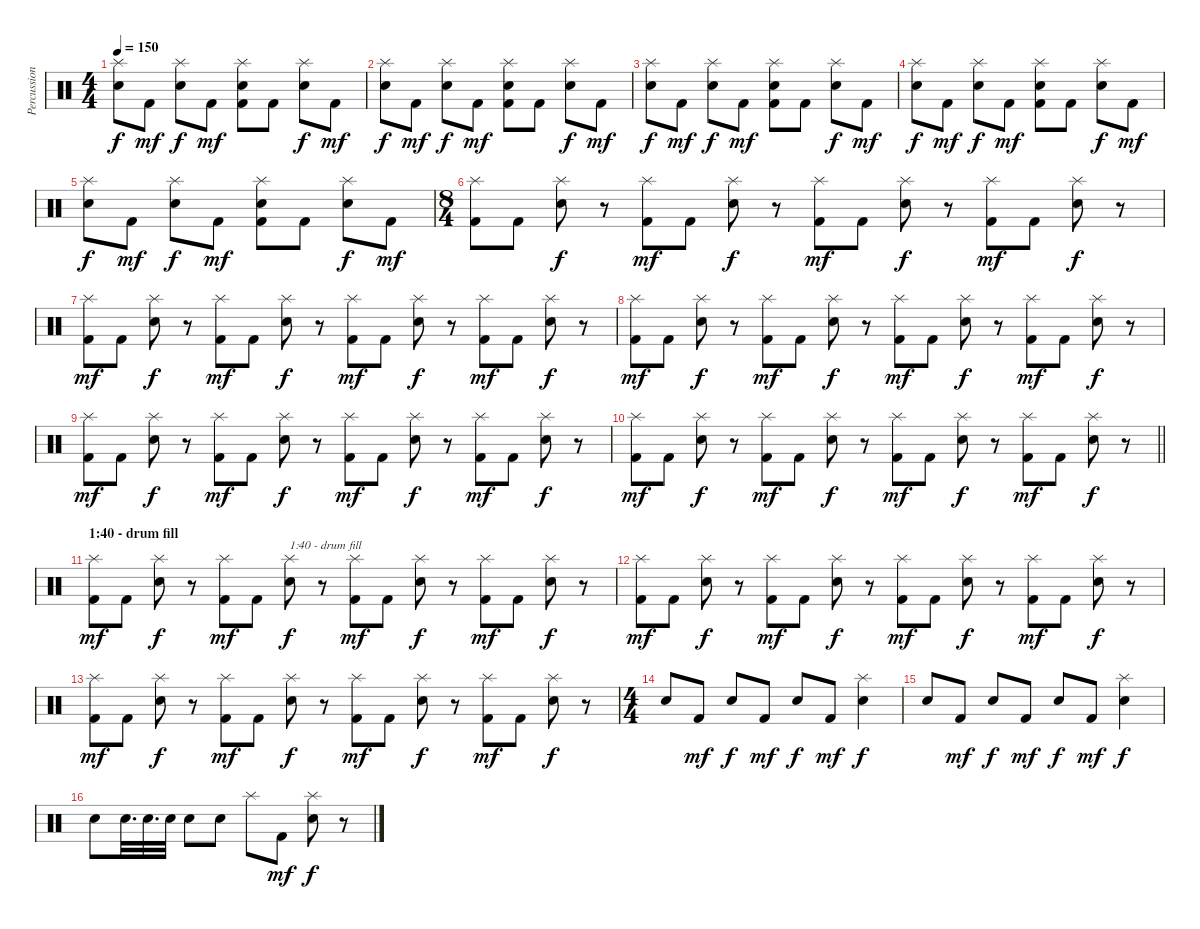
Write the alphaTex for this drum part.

\track ("Percussion" "Percussion") {instrument percussion}
\staff {score}
\articulation defaults
\ts (4 4)
\tempo 150
\clef neutral
\ks c
("Splash (hit)" "Snare (hit) 2").8{dy f} "Kick (hit) 2".8{dy mf} ("Splash (hit)" "Snare (hit) 2").8{dy f} "Kick (hit) 2".8{dy mf} ("Splash (hit)" "Snare (hit) 2" "Kick (hit) 2").8 "Kick (hit) 2".8 ("Splash (hit)" "Snare (hit) 2").8{dy f} "Kick (hit) 2".8{dy mf} |
("Splash (hit)" "Snare (hit) 2").8{dy f} "Kick (hit) 2".8{dy mf} ("Splash (hit)" "Snare (hit) 2").8{dy f} "Kick (hit) 2".8{dy mf} ("Splash (hit)" "Snare (hit) 2" "Kick (hit) 2").8 "Kick (hit) 2".8 ("Splash (hit)" "Snare (hit) 2").8{dy f} "Kick (hit) 2".8{dy mf} |
("Splash (hit)" "Snare (hit) 2").8{dy f} "Kick (hit) 2".8{dy mf} ("Splash (hit)" "Snare (hit) 2").8{dy f} "Kick (hit) 2".8{dy mf} ("Splash (hit)" "Snare (hit) 2" "Kick (hit) 2").8 "Kick (hit) 2".8 ("Splash (hit)" "Snare (hit) 2").8{dy f} "Kick (hit) 2".8{dy mf} |
("Splash (hit)" "Snare (hit) 2").8{dy f} "Kick (hit) 2".8{dy mf} ("Splash (hit)" "Snare (hit) 2").8{dy f} "Kick (hit) 2".8{dy mf} ("Splash (hit)" "Snare (hit) 2" "Kick (hit) 2").8 "Kick (hit) 2".8 ("Splash (hit)" "Snare (hit) 2").8{dy f} "Kick (hit) 2".8{dy mf} |
("Splash (hit)" "Snare (hit) 2").8{dy f} "Kick (hit) 2".8{dy mf} ("Splash (hit)" "Snare (hit) 2").8{dy f} "Kick (hit) 2".8{dy mf} ("Splash (hit)" "Snare (hit) 2" "Kick (hit) 2").8 "Kick (hit) 2".8 ("Splash (hit)" "Snare (hit) 2").8{dy f} "Kick (hit) 2".8{dy mf} |
\ts (8 4)
("Splash (hit)" "Kick (hit) 2").8 "Kick (hit) 2".8 ("Splash (hit)" "Snare (hit) 2").8{dy f} r.8 ("Splash (hit)" "Kick (hit) 2").8{dy mf} "Kick (hit) 2".8 ("Splash (hit)" "Snare (hit) 2").8{dy f} r.8 ("Splash (hit)" "Kick (hit) 2").8{dy mf} "Kick (hit) 2".8 ("Splash (hit)" "Snare (hit) 2").8{dy f} r.8 ("Splash (hit)" "Kick (hit) 2").8{dy mf} "Kick (hit) 2".8 ("Splash (hit)" "Snare (hit) 2").8{dy f} r.8 |
("Splash (hit)" "Kick (hit) 2").8{dy mf} "Kick (hit) 2".8 ("Splash (hit)" "Snare (hit) 2").8{dy f} r.8 ("Splash (hit)" "Kick (hit) 2").8{dy mf} "Kick (hit) 2".8 ("Splash (hit)" "Snare (hit) 2").8{dy f} r.8 ("Splash (hit)" "Kick (hit) 2").8{dy mf} "Kick (hit) 2".8 ("Splash (hit)" "Snare (hit) 2").8{dy f} r.8 ("Splash (hit)" "Kick (hit) 2").8{dy mf} "Kick (hit) 2".8 ("Splash (hit)" "Snare (hit) 2").8{dy f} r.8 |
("Splash (hit)" "Kick (hit) 2").8{dy mf} "Kick (hit) 2".8 ("Splash (hit)" "Snare (hit) 2").8{dy f} r.8 ("Splash (hit)" "Kick (hit) 2").8{dy mf} "Kick (hit) 2".8 ("Splash (hit)" "Snare (hit) 2").8{dy f} r.8 ("Splash (hit)" "Kick (hit) 2").8{dy mf} "Kick (hit) 2".8 ("Splash (hit)" "Snare (hit) 2").8{dy f} r.8 ("Splash (hit)" "Kick (hit) 2").8{dy mf} "Kick (hit) 2".8 ("Splash (hit)" "Snare (hit) 2").8{dy f} r.8 |
("Splash (hit)" "Kick (hit) 2").8{dy mf} "Kick (hit) 2".8 ("Splash (hit)" "Snare (hit) 2").8{dy f} r.8 ("Splash (hit)" "Kick (hit) 2").8{dy mf} "Kick (hit) 2".8 ("Splash (hit)" "Snare (hit) 2").8{dy f} r.8 ("Splash (hit)" "Kick (hit) 2").8{dy mf} "Kick (hit) 2".8 ("Splash (hit)" "Snare (hit) 2").8{dy f} r.8 ("Splash (hit)" "Kick (hit) 2").8{dy mf} "Kick (hit) 2".8 ("Splash (hit)" "Snare (hit) 2").8{dy f} r.8 |
\barLineRight lightlight
("Splash (hit)" "Kick (hit) 2").8{dy mf} "Kick (hit) 2".8 ("Splash (hit)" "Snare (hit) 2").8{dy f} r.8 ("Splash (hit)" "Kick (hit) 2").8{dy mf} "Kick (hit) 2".8 ("Splash (hit)" "Snare (hit) 2").8{dy f} r.8 ("Splash (hit)" "Kick (hit) 2").8{dy mf} "Kick (hit) 2".8 ("Splash (hit)" "Snare (hit) 2").8{dy f} r.8 ("Splash (hit)" "Kick (hit) 2").8{dy mf} "Kick (hit) 2".8 ("Splash (hit)" "Snare (hit) 2").8{dy f} r.8 |
\section ("" "1:40 - drum fill")
("Splash (hit)" "Kick (hit) 2").8{dy mf} "Kick (hit) 2".8 ("Splash (hit)" "Snare (hit) 2").8{dy f} r.8 ("Splash (hit)" "Kick (hit) 2").8{dy mf} "Kick (hit) 2".8 ("Splash (hit)" "Snare (hit) 2").8{txt "1:40 - drum fill" dy f} r.8 ("Splash (hit)" "Kick (hit) 2").8{dy mf} "Kick (hit) 2".8 ("Splash (hit)" "Snare (hit) 2").8{dy f} r.8 ("Splash (hit)" "Kick (hit) 2").8{dy mf} "Kick (hit) 2".8 ("Splash (hit)" "Snare (hit) 2").8{dy f} r.8 |
("Splash (hit)" "Kick (hit) 2").8{dy mf} "Kick (hit) 2".8 ("Splash (hit)" "Snare (hit) 2").8{dy f} r.8 ("Splash (hit)" "Kick (hit) 2").8{dy mf} "Kick (hit) 2".8 ("Splash (hit)" "Snare (hit) 2").8{dy f} r.8 ("Splash (hit)" "Kick (hit) 2").8{dy mf} "Kick (hit) 2".8 ("Splash (hit)" "Snare (hit) 2").8{dy f} r.8 ("Splash (hit)" "Kick (hit) 2").8{dy mf} "Kick (hit) 2".8 ("Splash (hit)" "Snare (hit) 2").8{dy f} r.8 |
("Splash (hit)" "Kick (hit) 2").8{dy mf} "Kick (hit) 2".8 ("Splash (hit)" "Snare (hit) 2").8{dy f} r.8 ("Splash (hit)" "Kick (hit) 2").8{dy mf} "Kick (hit) 2".8 ("Splash (hit)" "Snare (hit) 2").8{dy f} r.8 ("Splash (hit)" "Kick (hit) 2").8{dy mf} "Kick (hit) 2".8 ("Splash (hit)" "Snare (hit) 2").8{dy f} r.8 ("Splash (hit)" "Kick (hit) 2").8{dy mf} "Kick (hit) 2".8 ("Splash (hit)" "Snare (hit) 2").8{dy f} r.8 |
\ts (4 4)
"Snare (hit) 2".8 "Kick (hit) 2".8{dy mf} "Snare (hit) 2".8{dy f} "Kick (hit) 2".8{dy mf} "Snare (hit) 2".8{dy f} "Kick (hit) 2".8{dy mf} ("Splash (hit)" "Snare (hit) 2").4{dy f} |
"Snare (hit) 2".8 "Kick (hit) 2".8{dy mf} "Snare (hit) 2".8{dy f} "Kick (hit) 2".8{dy mf} "Snare (hit) 2".8{dy f} "Kick (hit) 2".8{dy mf} ("Splash (hit)" "Snare (hit) 2").4{dy f} |
"Snare (hit) 2".8 "Snare (hit) 2".32{d} "Snare (hit) 2".32{d} "Snare (hit) 2".32 "Snare (hit) 2".8 "Snare (hit) 2".8 "Splash (hit)".8 "Kick (hit) 2".8{dy mf} ("Splash (hit)" "Snare (hit) 2").8{dy f} r.8
